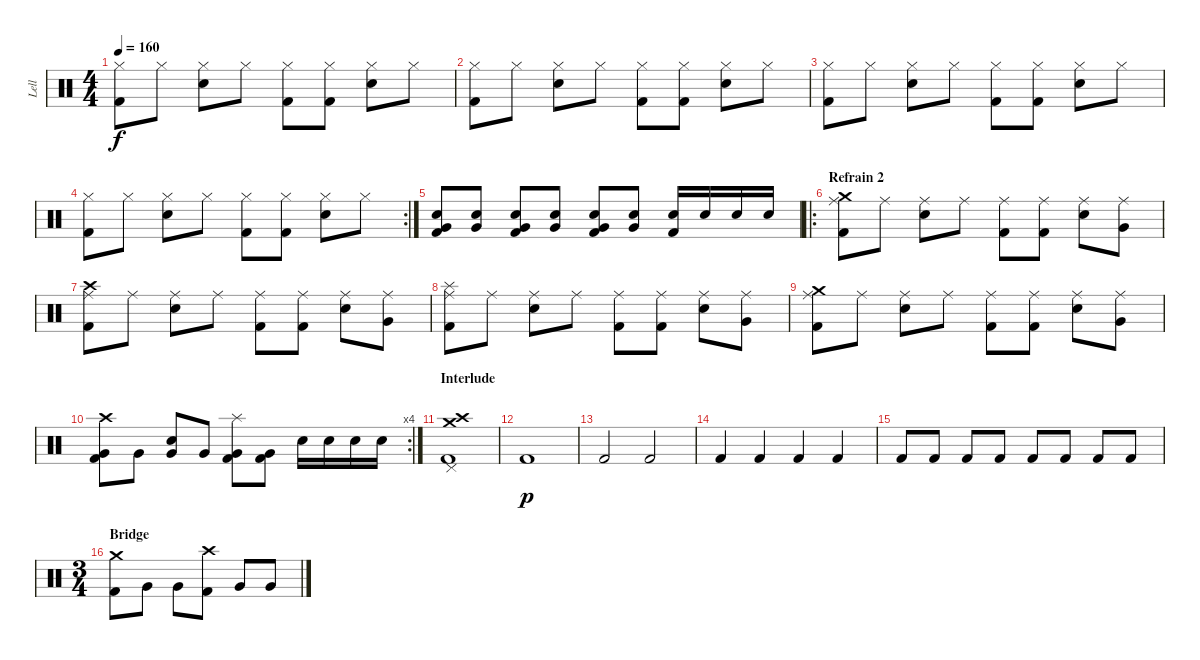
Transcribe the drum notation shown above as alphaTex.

\track ("Lell" "Lell") {instrument percussion}
\staff {score}
\articulation defaults
\ts (4 4)
\tempo 160
\clef neutral
\ks c
("Hi-Hat (closed)" "Kick (hit) 2").8{dy f} "Hi-Hat (closed)".8 ("Hi-Hat (closed)" "Snare (hit) 2").8 "Hi-Hat (closed)".8 ("Hi-Hat (closed)" "Kick (hit) 2").8 ("Hi-Hat (closed)" "Kick (hit) 2").8 ("Hi-Hat (closed)" "Snare (hit) 2").8 "Hi-Hat (closed)".8 |
("Hi-Hat (closed)" "Kick (hit) 2").8 "Hi-Hat (closed)".8 ("Hi-Hat (closed)" "Snare (hit) 2").8 "Hi-Hat (closed)".8 ("Hi-Hat (closed)" "Kick (hit) 2").8 ("Hi-Hat (closed)" "Kick (hit) 2").8 ("Hi-Hat (closed)" "Snare (hit) 2").8 "Hi-Hat (closed)".8 |
("Hi-Hat (closed)" "Kick (hit) 2").8 "Hi-Hat (closed)".8 ("Hi-Hat (closed)" "Snare (hit) 2").8 "Hi-Hat (closed)".8 ("Hi-Hat (closed)" "Kick (hit) 2").8 ("Hi-Hat (closed)" "Kick (hit) 2").8 ("Hi-Hat (closed)" "Snare (hit) 2").8 "Hi-Hat (closed)".8 |
\rc 2
("Hi-Hat (closed)" "Kick (hit) 2").8 "Hi-Hat (closed)".8 ("Hi-Hat (closed)" "Snare (hit) 2").8 "Hi-Hat (closed)".8 ("Hi-Hat (closed)" "Kick (hit) 2").8 ("Hi-Hat (closed)" "Kick (hit) 2").8 ("Hi-Hat (closed)" "Snare (hit) 2").8 "Hi-Hat (closed)".8 |
("Very Low Tom (hit)" "Snare (hit) 2" "Kick (hit) 2").8 ("Very Low Tom (hit)" "Snare (hit) 2").8 ("Very Low Tom (hit)" "Snare (hit) 2" "Kick (hit) 2").8 ("Very Low Tom (hit)" "Snare (hit) 2").8 ("Very Low Tom (hit)" "Snare (hit) 2" "Kick (hit) 2").8 ("Very Low Tom (hit)" "Snare (hit) 2").8 ("Snare (hit) 2" "Kick (hit) 2").16 "Snare (hit) 2".16 "Snare (hit) 2".16 "Snare (hit) 2".16 |
\ro
\section ("" "Refrain 2")
("Crash medium (hit)" "Ride (middle)" "Kick (hit) 2").8 "Ride (middle)".8 ("Ride (middle)" "Snare (hit) 2").8 "Ride (middle)".8 ("Ride (middle)" "Kick (hit) 2").8 ("Ride (middle)" "Kick (hit) 2").8 ("Ride (middle)" "Snare (hit) 2").8 ("Ride (middle)" "Very Low Tom (hit)").8 |
("Crash high (hit)" "Ride (middle)" "Kick (hit) 2").8 "Ride (middle)".8 ("Ride (middle)" "Snare (hit) 2").8 "Ride (middle)".8 ("Ride (middle)" "Kick (hit) 2").8 ("Ride (middle)" "Kick (hit) 2").8 ("Ride (middle)" "Snare (hit) 2").8 ("Ride (middle)" "Very Low Tom (hit)").8 |
("Splash (hit)" "Ride (middle)" "Kick (hit) 2").8 "Ride (middle)".8 ("Ride (middle)" "Snare (hit) 2").8 "Ride (middle)".8 ("Ride (middle)" "Kick (hit) 2").8 ("Ride (middle)" "Kick (hit) 2").8 ("Ride (middle)" "Snare (hit) 2").8 ("Ride (middle)" "Very Low Tom (hit)").8 |
("Crash medium (hit)" "Ride (middle)" "Kick (hit) 2").8 "Ride (middle)".8 ("Ride (middle)" "Snare (hit) 2").8 "Ride (middle)".8 ("Ride (middle)" "Kick (hit) 2").8 ("Ride (middle)" "Kick (hit) 2").8 ("Ride (middle)" "Snare (hit) 2").8 ("Ride (middle)" "Very Low Tom (hit)").8 |
\rc 4
("Crash high (hit)" "Very Low Tom (hit)" "Kick (hit) 2").8 "Very Low Tom (hit)".8 ("Very Low Tom (hit)" "Snare (hit) 2").8 "Very Low Tom (hit)".8 ("Splash (hit)" "Very Low Tom (hit)" "Kick (hit) 2").8 ("Very Low Tom (hit)" "Kick (hit) 2").8 "Snare (hit) 2".16 "Snare (hit) 2".16 "Snare (hit) 2".16 "Snare (hit) 2".16 |
\section ("" "Interlude")
("Crash medium (hit)" "Pedal Hi-Hat (hit)" "Crash high (hit)" "Kick (hit) 2").1 |
"Kick (hit) 2".1{dy p} |
"Kick (hit) 2".2 "Kick (hit) 2".2 |
"Kick (hit) 2".4 "Kick (hit) 2".4 "Kick (hit) 2".4 "Kick (hit) 2".4 |
"Kick (hit) 2".8 "Kick (hit) 2".8 "Kick (hit) 2".8 "Kick (hit) 2".8 "Kick (hit) 2".8 "Kick (hit) 2".8 "Kick (hit) 2".8 "Kick (hit) 2".8 |
\ts (3 4)
\section ("" "Bridge")
("Crash medium (hit)" "Kick (hit) 2").8 "Very Low Tom (hit)".8 "Very Low Tom (hit)".8 ("Crash high (hit)" "Kick (hit) 2").8 "Very Low Tom (hit)".8 "Very Low Tom (hit)".8
